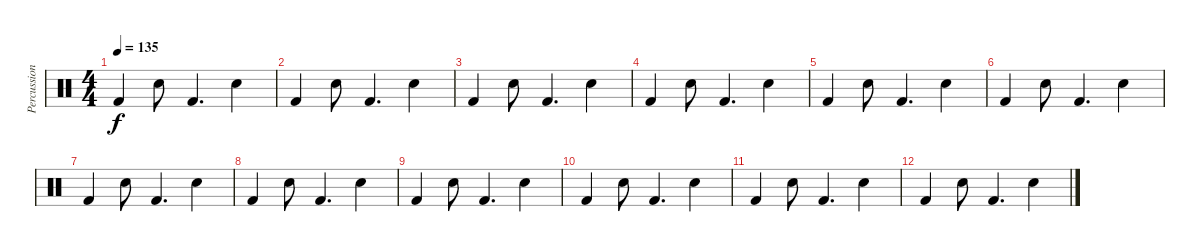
\track ("Percussion" "Percussion") {instrument percussion}
\staff {score}
\articulation defaults
\ts (4 4)
\tempo 135
\clef neutral
\ks c "Kick (hit) 2".4{dy f} "Snare (hit) 2".8 "Kick (hit) 2".4{d} "Snare (hit) 2".4
|
"Kick (hit) 2".4 "Snare (hit) 2".8 "Kick (hit) 2".4{d} "Snare (hit) 2".4 |
"Kick (hit) 2".4 "Snare (hit) 2".8 "Kick (hit) 2".4{d} "Snare (hit) 2".4 |
"Kick (hit) 2".4 "Snare (hit) 2".8 "Kick (hit) 2".4{d} "Snare (hit) 2".4 |
"Kick (hit) 2".4 "Snare (hit) 2".8 "Kick (hit) 2".4{d} "Snare (hit) 2".4 |
"Kick (hit) 2".4 "Snare (hit) 2".8 "Kick (hit) 2".4{d} "Snare (hit) 2".4 |
"Kick (hit) 2".4 "Snare (hit) 2".8 "Kick (hit) 2".4{d} "Snare (hit) 2".4 |
"Kick (hit) 2".4 "Snare (hit) 2".8 "Kick (hit) 2".4{d} "Snare (hit) 2".4 |
"Kick (hit) 2".4 "Snare (hit) 2".8 "Kick (hit) 2".4{d} "Snare (hit) 2".4 |
"Kick (hit) 2".4 "Snare (hit) 2".8 "Kick (hit) 2".4{d} "Snare (hit) 2".4 |
"Kick (hit) 2".4 "Snare (hit) 2".8 "Kick (hit) 2".4{d} "Snare (hit) 2".4 |
"Kick (hit) 2".4 "Snare (hit) 2".8 "Kick (hit) 2".4{d} "Snare (hit) 2".4
